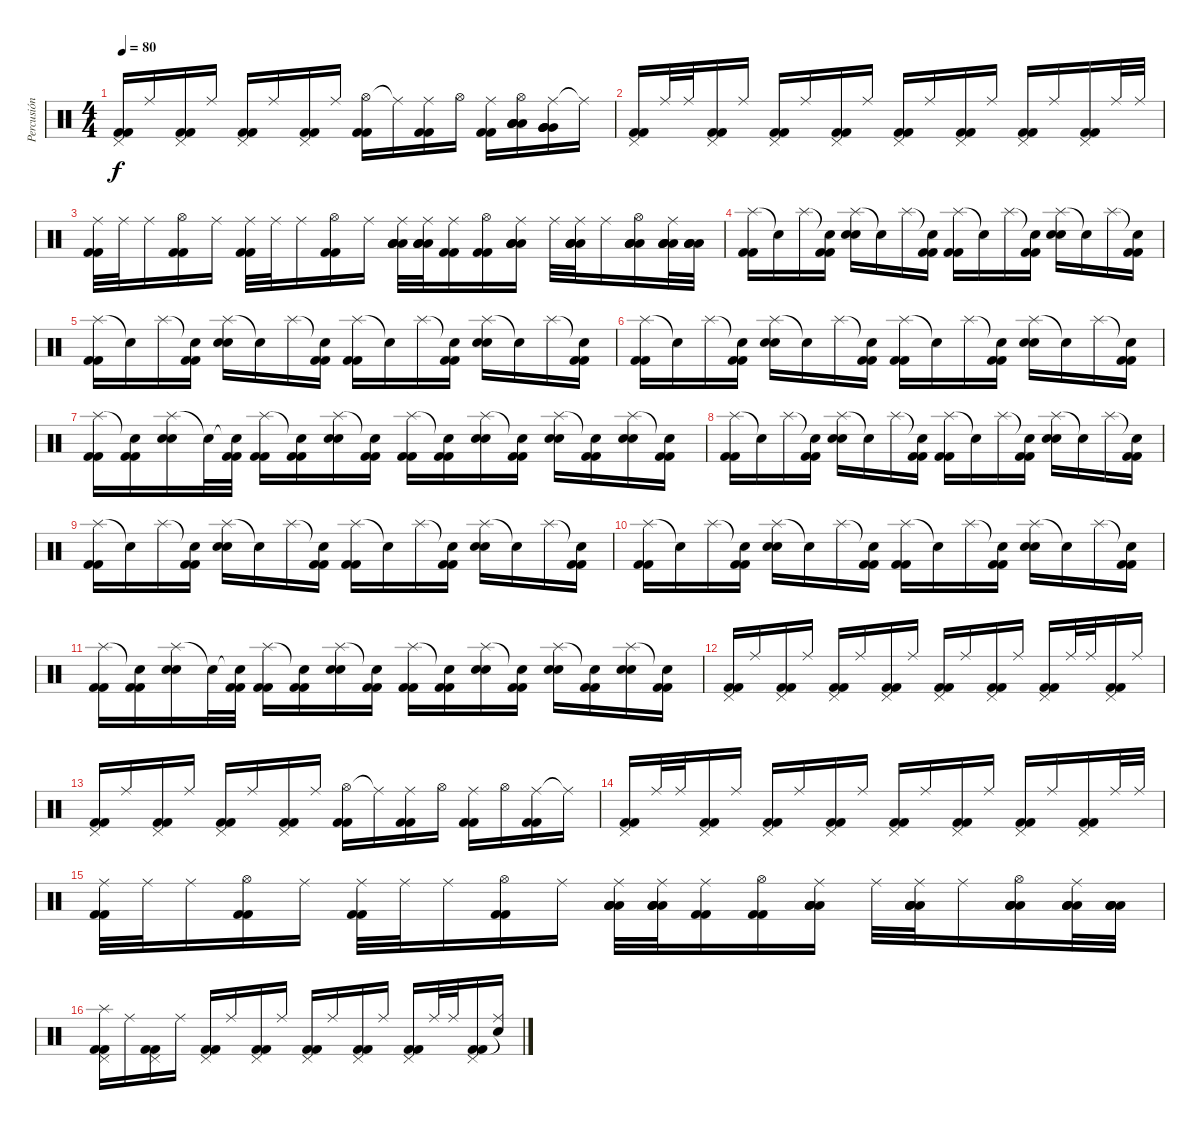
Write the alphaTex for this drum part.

\track ("Percusión" "Percusión") {instrument percussion}
\staff {score}
\articulation defaults
\ts (4 4)
\tempo 80
\clef neutral
\ks c
("Pedal Hi-Hat (hit)" "Kick (hit) 2" "Kick (hit) 2").16{dy f} "Ride (middle)".16 ("Pedal Hi-Hat (hit)" "Kick (hit) 2" "Kick (hit) 2").16 "Ride (middle)".16 ("Pedal Hi-Hat (hit)" "Kick (hit) 2" "Kick (hit) 2").16 "Ride (middle)".16 ("Pedal Hi-Hat (hit)" "Kick (hit) 2" "Kick (hit) 2").16 "Ride (middle)".16 ("Hi-Hat (open)" "Kick (hit) 2" "Kick (hit) 2").16 "Ride (middle)"{t}.16 ("Ride (middle)" "Kick (hit) 2" "Kick (hit) 2").16 "Hi-Hat (open)".16 ("Ride (middle)" "Kick (hit) 2" "Kick (hit) 2").16 ("Hi-Hat (open)" "Low Tom (hit)" "Low Tom (hit)" "Low Tom (hit)" "Low Tom (hit)").16 ("Ride (middle)" "Very Low Tom (hit)" "Very Low Tom (hit)" "Very Low Tom (hit)" "Very Low Tom (hit)").16 "Ride (middle)"{t}.16 |
("Pedal Hi-Hat (hit)" "Kick (hit) 2" "Kick (hit) 2").16 "Ride (middle)".32 "Ride (middle)".32 ("Pedal Hi-Hat (hit)" "Kick (hit) 2" "Kick (hit) 2").16 "Ride (middle)".16 ("Pedal Hi-Hat (hit)" "Kick (hit) 2" "Kick (hit) 2").16 "Ride (middle)".16 ("Pedal Hi-Hat (hit)" "Kick (hit) 2" "Kick (hit) 2").16 "Ride (middle)".16 ("Pedal Hi-Hat (hit)" "Kick (hit) 2" "Kick (hit) 2").16 "Ride (middle)".16 ("Pedal Hi-Hat (hit)" "Kick (hit) 2" "Kick (hit) 2").16 "Ride (middle)".16 ("Pedal Hi-Hat (hit)" "Kick (hit) 2" "Kick (hit) 2").16 "Ride (middle)".16 ("Pedal Hi-Hat (hit)" "Kick (hit) 2" "Kick (hit) 2").16 "Ride (middle)".32 "Ride (middle)".32 |
("Ride (middle)" "Kick (hit) 2" "Kick (hit) 2").32 "Ride (middle)".32 "Ride (middle)".16 ("Hi-Hat (open)" "Kick (hit) 2" "Kick (hit) 2").16 "Ride (middle)".16 ("Ride (middle)" "Kick (hit) 2" "Kick (hit) 2").32 "Ride (middle)".32 "Ride (middle)".16 ("Hi-Hat (open)" "Kick (hit) 2" "Kick (hit) 2").16 "Ride (middle)".16 ("Ride (middle)" "Low Tom (hit)" "Low Tom (hit)" "Low Tom (hit)" "Low Tom (hit)").32 ("Ride (middle)" "Low Tom (hit)" "Low Tom (hit)" "Low Tom (hit)" "Low Tom (hit)").32 ("Ride (middle)" "Kick (hit) 2" "Kick (hit) 2").16 ("Hi-Hat (open)" "Kick (hit) 2" "Kick (hit) 2").16 ("Ride (middle)" "Low Tom (hit)" "Low Tom (hit)" "Low Tom (hit)" "Low Tom (hit)").16 "Ride (middle)".32 ("Ride (middle)" "Low Tom (hit)" "Low Tom (hit)" "Low Tom (hit)" "Low Tom (hit)").32 "Ride (middle)".16 ("Hi-Hat (open)" "Low Tom (hit)" "Low Tom (hit)" "Low Tom (hit)" "Low Tom (hit)").16 ("Ride (middle)" "Low Tom (hit)" "Low Tom (hit)" "Low Tom (hit)" "Low Tom (hit)").32 ("Low Tom (hit)" "Low Tom (hit)" "Low Tom (hit)" "Low Tom (hit)").32 |
("Splash (hit)" "Kick (hit) 2" "Kick (hit) 2").16 "Snare (hit)"{t}.16 "Splash (hit)".16 ("Snare (hit)"{t} "Kick (hit) 2" "Kick (hit) 2").16 ("Splash (hit)" "Electric Snare (hit)" "Electric Snare (hit)").16 "Snare (hit)"{t}.16 "Splash (hit)".16 ("Snare (hit)"{t} "Kick (hit) 2" "Kick (hit) 2").16 ("Splash (hit)" "Kick (hit) 2" "Kick (hit) 2").16 "Snare (hit)"{t}.16 "Splash (hit)".16 ("Snare (hit)"{t} "Kick (hit) 2" "Kick (hit) 2").16 ("Splash (hit)" "Electric Snare (hit)" "Electric Snare (hit)").16 "Snare (hit)"{t}.16 "Splash (hit)".16 ("Snare (hit)"{t} "Kick (hit) 2" "Kick (hit) 2").16 |
("Splash (hit)" "Kick (hit) 2" "Kick (hit) 2").16 "Snare (hit)"{t}.16 "Splash (hit)".16 ("Snare (hit)"{t} "Kick (hit) 2" "Kick (hit) 2").16 ("Splash (hit)" "Electric Snare (hit)" "Electric Snare (hit)").16 "Snare (hit)"{t}.16 "Splash (hit)".16 ("Snare (hit)"{t} "Kick (hit) 2" "Kick (hit) 2").16 ("Splash (hit)" "Kick (hit) 2" "Kick (hit) 2").16 "Snare (hit)"{t}.16 "Splash (hit)".16 ("Snare (hit)"{t} "Kick (hit) 2" "Kick (hit) 2").16 ("Splash (hit)" "Electric Snare (hit)" "Electric Snare (hit)").16 "Snare (hit)"{t}.16 "Splash (hit)".16 ("Snare (hit)"{t} "Kick (hit) 2" "Kick (hit) 2").16 |
("Splash (hit)" "Kick (hit) 2" "Kick (hit) 2").16 "Snare (hit)"{t}.16 "Splash (hit)".16 ("Snare (hit)"{t} "Kick (hit) 2" "Kick (hit) 2").16 ("Splash (hit)" "Electric Snare (hit)" "Electric Snare (hit)").16 "Snare (hit)"{t}.16 "Splash (hit)".16 ("Snare (hit)"{t} "Kick (hit) 2" "Kick (hit) 2").16 ("Splash (hit)" "Kick (hit) 2" "Kick (hit) 2").16 "Snare (hit)"{t}.16 "Splash (hit)".16 ("Snare (hit)"{t} "Kick (hit) 2" "Kick (hit) 2").16 ("Splash (hit)" "Electric Snare (hit)" "Electric Snare (hit)").16 "Snare (hit)"{t}.16 "Splash (hit)".16 ("Snare (hit)"{t} "Kick (hit) 2" "Kick (hit) 2").16 |
("Splash (hit)" "Kick (hit) 2" "Kick (hit) 2").16 ("Snare (hit)"{t} "Kick (hit) 2" "Kick (hit) 2").16 ("Splash (hit)" "Electric Snare (hit)" "Electric Snare (hit)").16 "Snare (hit)"{t}.32 ("Snare (hit)"{t} "Kick (hit) 2" "Kick (hit) 2").32 ("Splash (hit)" "Kick (hit) 2" "Kick (hit) 2").16 ("Snare (hit)"{t} "Kick (hit) 2" "Kick (hit) 2").16 ("Splash (hit)" "Electric Snare (hit)" "Electric Snare (hit)").16 ("Snare (hit)"{t} "Kick (hit) 2" "Kick (hit) 2").16 ("Splash (hit)" "Kick (hit) 2" "Kick (hit) 2").16 ("Snare (hit)"{t} "Kick (hit) 2" "Kick (hit) 2").16 ("Splash (hit)" "Electric Snare (hit)" "Electric Snare (hit)").16 ("Snare (hit)"{t} "Kick (hit) 2" "Kick (hit) 2").16 ("Splash (hit)" "Electric Snare (hit)" "Electric Snare (hit)").16 ("Snare (hit)"{t} "Kick (hit) 2" "Kick (hit) 2").16 ("Splash (hit)" "Electric Snare (hit)" "Electric Snare (hit)").16 ("Snare (hit)"{t} "Kick (hit) 2" "Kick (hit) 2").16 |
("Splash (hit)" "Kick (hit) 2" "Kick (hit) 2").16 "Snare (hit)"{t}.16 "Splash (hit)".16 ("Snare (hit)"{t} "Kick (hit) 2" "Kick (hit) 2").16 ("Splash (hit)" "Electric Snare (hit)" "Electric Snare (hit)").16 "Snare (hit)"{t}.16 "Splash (hit)".16 ("Snare (hit)"{t} "Kick (hit) 2" "Kick (hit) 2").16 ("Splash (hit)" "Kick (hit) 2" "Kick (hit) 2").16 "Snare (hit)"{t}.16 "Splash (hit)".16 ("Snare (hit)"{t} "Kick (hit) 2" "Kick (hit) 2").16 ("Splash (hit)" "Electric Snare (hit)" "Electric Snare (hit)").16 "Snare (hit)"{t}.16 "Splash (hit)".16 ("Snare (hit)"{t} "Kick (hit) 2" "Kick (hit) 2").16 |
("Splash (hit)" "Kick (hit) 2" "Kick (hit) 2").16 "Snare (hit)"{t}.16 "Splash (hit)".16 ("Snare (hit)"{t} "Kick (hit) 2" "Kick (hit) 2").16 ("Splash (hit)" "Electric Snare (hit)" "Electric Snare (hit)").16 "Snare (hit)"{t}.16 "Splash (hit)".16 ("Snare (hit)"{t} "Kick (hit) 2" "Kick (hit) 2").16 ("Splash (hit)" "Kick (hit) 2" "Kick (hit) 2").16 "Snare (hit)"{t}.16 "Splash (hit)".16 ("Snare (hit)"{t} "Kick (hit) 2" "Kick (hit) 2").16 ("Splash (hit)" "Electric Snare (hit)" "Electric Snare (hit)").16 "Snare (hit)"{t}.16 "Splash (hit)".16 ("Snare (hit)"{t} "Kick (hit) 2" "Kick (hit) 2").16 |
("Splash (hit)" "Kick (hit) 2" "Kick (hit) 2").16 "Snare (hit)"{t}.16 "Splash (hit)".16 ("Snare (hit)"{t} "Kick (hit) 2" "Kick (hit) 2").16 ("Splash (hit)" "Electric Snare (hit)" "Electric Snare (hit)").16 "Snare (hit)"{t}.16 "Splash (hit)".16 ("Snare (hit)"{t} "Kick (hit) 2" "Kick (hit) 2").16 ("Splash (hit)" "Kick (hit) 2" "Kick (hit) 2").16 "Snare (hit)"{t}.16 "Splash (hit)".16 ("Snare (hit)"{t} "Kick (hit) 2" "Kick (hit) 2").16 ("Splash (hit)" "Electric Snare (hit)" "Electric Snare (hit)").16 "Snare (hit)"{t}.16 "Splash (hit)".16 ("Snare (hit)"{t} "Kick (hit) 2" "Kick (hit) 2").16 |
("Splash (hit)" "Kick (hit) 2" "Kick (hit) 2").16 ("Snare (hit)"{t} "Kick (hit) 2" "Kick (hit) 2").16 ("Splash (hit)" "Electric Snare (hit)" "Electric Snare (hit)").16 "Snare (hit)"{t}.32 ("Snare (hit)"{t} "Kick (hit) 2" "Kick (hit) 2").32 ("Splash (hit)" "Kick (hit) 2" "Kick (hit) 2").16 ("Snare (hit)"{t} "Kick (hit) 2" "Kick (hit) 2").16 ("Splash (hit)" "Electric Snare (hit)" "Electric Snare (hit)").16 ("Snare (hit)"{t} "Kick (hit) 2" "Kick (hit) 2").16 ("Splash (hit)" "Kick (hit) 2" "Kick (hit) 2").16 ("Snare (hit)"{t} "Kick (hit) 2" "Kick (hit) 2").16 ("Splash (hit)" "Electric Snare (hit)" "Electric Snare (hit)").16 ("Snare (hit)"{t} "Kick (hit) 2" "Kick (hit) 2").16 ("Splash (hit)" "Electric Snare (hit)" "Electric Snare (hit)").16 ("Snare (hit)"{t} "Kick (hit) 2" "Kick (hit) 2").16 ("Splash (hit)" "Electric Snare (hit)" "Electric Snare (hit)").16 ("Snare (hit)"{t} "Kick (hit) 2" "Kick (hit) 2").16 |
("Pedal Hi-Hat (hit)" "Kick (hit) 2" "Kick (hit) 2").16 "Ride (middle)".16 ("Pedal Hi-Hat (hit)" "Kick (hit) 2" "Kick (hit) 2").16 "Ride (middle)".16 ("Pedal Hi-Hat (hit)" "Kick (hit) 2" "Kick (hit) 2").16 "Ride (middle)".16 ("Pedal Hi-Hat (hit)" "Kick (hit) 2" "Kick (hit) 2").16 "Ride (middle)".16 ("Pedal Hi-Hat (hit)" "Kick (hit) 2" "Kick (hit) 2").16 "Ride (middle)".16 ("Pedal Hi-Hat (hit)" "Kick (hit) 2" "Kick (hit) 2").16 "Ride (middle)".16 ("Pedal Hi-Hat (hit)" "Kick (hit) 2" "Kick (hit) 2").16 "Ride (middle)".32 "Ride (middle)".32 ("Pedal Hi-Hat (hit)" "Kick (hit) 2" "Kick (hit) 2").16 "Ride (middle)".16 |
("Pedal Hi-Hat (hit)" "Kick (hit) 2" "Kick (hit) 2").16 "Ride (middle)".16 ("Pedal Hi-Hat (hit)" "Kick (hit) 2" "Kick (hit) 2").16 "Ride (middle)".16 ("Pedal Hi-Hat (hit)" "Kick (hit) 2" "Kick (hit) 2").16 "Ride (middle)".16 ("Pedal Hi-Hat (hit)" "Kick (hit) 2" "Kick (hit) 2").16 "Ride (middle)".16 ("Hi-Hat (open)" "Kick (hit) 2" "Kick (hit) 2").16 "Ride (middle)"{t}.16 ("Ride (middle)" "Kick (hit) 2" "Kick (hit) 2").16 "Hi-Hat (open)".16 ("Ride (middle)" "Kick (hit) 2" "Kick (hit) 2").16 "Hi-Hat (open)".16 ("Ride (middle)" "Kick (hit) 2" "Kick (hit) 2").16 "Ride (middle)"{t}.16 |
("Pedal Hi-Hat (hit)" "Kick (hit) 2" "Kick (hit) 2").16 "Ride (middle)".32 "Ride (middle)".32 ("Pedal Hi-Hat (hit)" "Kick (hit) 2" "Kick (hit) 2").16 "Ride (middle)".16 ("Pedal Hi-Hat (hit)" "Kick (hit) 2" "Kick (hit) 2").16 "Ride (middle)".16 ("Pedal Hi-Hat (hit)" "Kick (hit) 2" "Kick (hit) 2").16 "Ride (middle)".16 ("Pedal Hi-Hat (hit)" "Kick (hit) 2" "Kick (hit) 2").16 "Ride (middle)".16 ("Pedal Hi-Hat (hit)" "Kick (hit) 2" "Kick (hit) 2").16 "Ride (middle)".16 ("Pedal Hi-Hat (hit)" "Kick (hit) 2" "Kick (hit) 2").16 "Ride (middle)".16 ("Pedal Hi-Hat (hit)" "Kick (hit) 2" "Kick (hit) 2").16 "Ride (middle)".32 "Ride (middle)".32 |
("Ride (middle)" "Kick (hit) 2" "Kick (hit) 2").32 "Ride (middle)".32 "Ride (middle)".16 ("Hi-Hat (open)" "Kick (hit) 2" "Kick (hit) 2").16 "Ride (middle)".16 ("Ride (middle)" "Kick (hit) 2" "Kick (hit) 2").32 "Ride (middle)".32 "Ride (middle)".16 ("Hi-Hat (open)" "Kick (hit) 2" "Kick (hit) 2").16 "Ride (middle)".16 ("Ride (middle)" "Low Tom (hit)" "Low Tom (hit)" "Low Tom (hit)" "Low Tom (hit)").32 ("Ride (middle)" "Low Tom (hit)" "Low Tom (hit)" "Low Tom (hit)" "Low Tom (hit)").32 ("Ride (middle)" "Kick (hit) 2" "Kick (hit) 2").16 ("Hi-Hat (open)" "Kick (hit) 2" "Kick (hit) 2").16 ("Ride (middle)" "Low Tom (hit)" "Low Tom (hit)" "Low Tom (hit)" "Low Tom (hit)").16 "Ride (middle)".32 ("Ride (middle)" "Low Tom (hit)" "Low Tom (hit)" "Low Tom (hit)" "Low Tom (hit)").32 "Ride (middle)".16 ("Hi-Hat (open)" "Low Tom (hit)" "Low Tom (hit)" "Low Tom (hit)" "Low Tom (hit)").16 ("Ride (middle)" "Low Tom (hit)" "Low Tom (hit)" "Low Tom (hit)" "Low Tom (hit)").32 ("Low Tom (hit)" "Low Tom (hit)" "Low Tom (hit)" "Low Tom (hit)").32 |
("Pedal Hi-Hat (hit)" "Splash (hit)" "Kick (hit) 2" "Kick (hit) 2").16 "Ride (middle)".16 ("Pedal Hi-Hat (hit)" "Kick (hit) 2" "Kick (hit) 2").16 "Ride (middle)".16 ("Pedal Hi-Hat (hit)" "Kick (hit) 2" "Kick (hit) 2").16 "Ride (middle)".16 ("Pedal Hi-Hat (hit)" "Kick (hit) 2" "Kick (hit) 2").16 "Ride (middle)".16 ("Pedal Hi-Hat (hit)" "Kick (hit) 2" "Kick (hit) 2").16 "Ride (middle)".16 ("Pedal Hi-Hat (hit)" "Kick (hit) 2" "Kick (hit) 2").16 "Ride (middle)".16 ("Pedal Hi-Hat (hit)" "Kick (hit) 2" "Kick (hit) 2").16 "Ride (middle)".32 "Ride (middle)".32 ("Pedal Hi-Hat (hit)" "Kick (hit) 2" "Kick (hit) 2").16 ("Ride (middle)" "Snare (hit)"{t}).16
